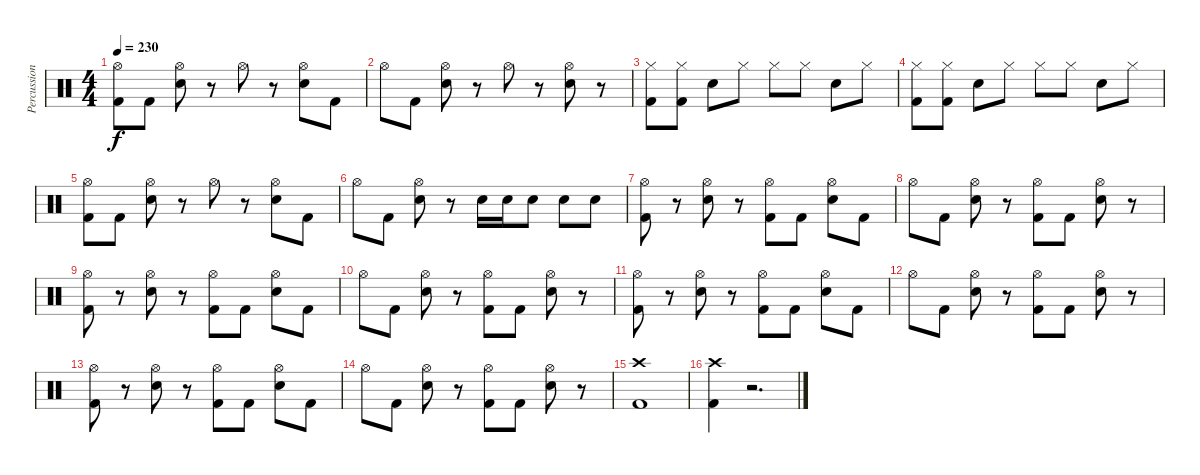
\track ("Percussion" "Percussion") {instrument percussion}
\staff {score}
\articulation defaults
\ts (4 4)
\tempo 230
\clef neutral
\ks c
("Hi-Hat (open)" "Kick (hit) 2").8{dy f} "Kick (hit) 2".8 ("Hi-Hat (open)" "Electric Snare (hit)").8 r.8 "Hi-Hat (open)".8 r.8 ("Hi-Hat (open)" "Electric Snare (hit)").8 "Kick (hit) 2".8 |
"Hi-Hat (open)".8 "Kick (hit) 2".8 ("Hi-Hat (open)" "Electric Snare (hit)").8 r.8 "Hi-Hat (open)".8 r.8 ("Hi-Hat (open)" "Electric Snare (hit)").8 r.8 |
("Hi-Hat (closed)" "Kick (hit) 2").8 ("Hi-Hat (closed)" "Kick (hit) 2").8 "Electric Snare (hit)".8 "Hi-Hat (closed)".8 "Hi-Hat (closed)".8 "Hi-Hat (closed)".8 "Electric Snare (hit)".8 "Hi-Hat (closed)".8 |
("Hi-Hat (closed)" "Kick (hit) 2").8 ("Hi-Hat (closed)" "Kick (hit) 2").8 "Electric Snare (hit)".8 "Hi-Hat (closed)".8 "Hi-Hat (closed)".8 "Hi-Hat (closed)".8 "Electric Snare (hit)".8 "Hi-Hat (closed)".8 |
("Hi-Hat (open)" "Kick (hit) 2").8 "Kick (hit) 2".8 ("Hi-Hat (open)" "Electric Snare (hit)").8 r.8 "Hi-Hat (open)".8 r.8 ("Hi-Hat (open)" "Electric Snare (hit)").8 "Kick (hit) 2".8 |
"Hi-Hat (open)".8 "Kick (hit) 2".8 ("Hi-Hat (open)" "Electric Snare (hit)").8 r.8 "Electric Snare (hit)".16 "Electric Snare (hit)".16 "Electric Snare (hit)".8 "Electric Snare (hit)".8 "Electric Snare (hit)".8 |
("Hi-Hat (open)" "Kick (hit) 2").8 r.8 ("Hi-Hat (open)" "Electric Snare (hit)").8 r.8 ("Hi-Hat (open)" "Kick (hit) 2").8 "Kick (hit) 2".8 ("Hi-Hat (open)" "Electric Snare (hit)").8 "Kick (hit) 2".8 |
"Hi-Hat (open)".8 "Kick (hit) 2".8 ("Hi-Hat (open)" "Electric Snare (hit)").8 r.8 ("Hi-Hat (open)" "Kick (hit) 2").8 "Kick (hit) 2".8 ("Hi-Hat (open)" "Electric Snare (hit)").8 r.8 |
("Hi-Hat (open)" "Kick (hit) 2").8 r.8 ("Hi-Hat (open)" "Electric Snare (hit)").8 r.8 ("Hi-Hat (open)" "Kick (hit) 2").8 "Kick (hit) 2".8 ("Hi-Hat (open)" "Electric Snare (hit)").8 "Kick (hit) 2".8 |
"Hi-Hat (open)".8 "Kick (hit) 2".8 ("Hi-Hat (open)" "Electric Snare (hit)").8 r.8 ("Hi-Hat (open)" "Kick (hit) 2").8 "Kick (hit) 2".8 ("Hi-Hat (open)" "Electric Snare (hit)").8 r.8 |
("Hi-Hat (open)" "Kick (hit) 2").8 r.8 ("Hi-Hat (open)" "Electric Snare (hit)").8 r.8 ("Hi-Hat (open)" "Kick (hit) 2").8 "Kick (hit) 2".8 ("Hi-Hat (open)" "Electric Snare (hit)").8 "Kick (hit) 2".8 |
"Hi-Hat (open)".8 "Kick (hit) 2".8 ("Hi-Hat (open)" "Electric Snare (hit)").8 r.8 ("Hi-Hat (open)" "Kick (hit) 2").8 "Kick (hit) 2".8 ("Hi-Hat (open)" "Electric Snare (hit)").8 r.8 |
("Hi-Hat (open)" "Kick (hit) 2").8 r.8 ("Hi-Hat (open)" "Electric Snare (hit)").8 r.8 ("Hi-Hat (open)" "Kick (hit) 2").8 "Kick (hit) 2".8 ("Hi-Hat (open)" "Electric Snare (hit)").8 "Kick (hit) 2".8 |
"Hi-Hat (open)".8 "Kick (hit) 2".8 ("Hi-Hat (open)" "Electric Snare (hit)").8 r.8 ("Hi-Hat (open)" "Kick (hit) 2").8 "Kick (hit) 2".8 ("Hi-Hat (open)" "Electric Snare (hit)").8 r.8 |
("Crash high (hit)" "Kick (hit) 2").1 |
("Crash high (hit)" "Kick (hit) 2").4 r.2{d volume 0}
